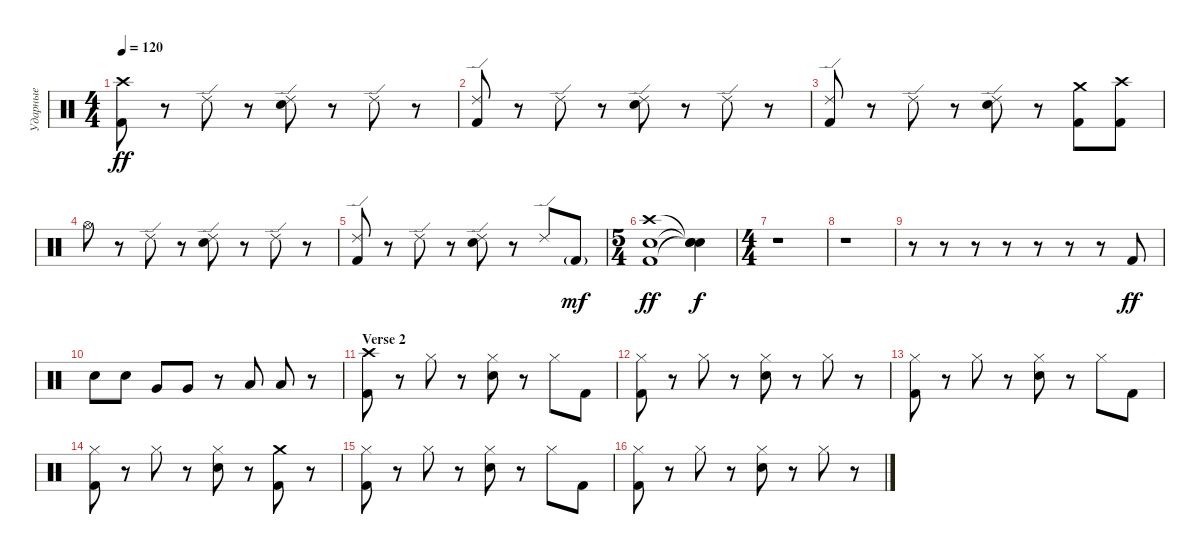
\track ("Ударные" "Ударные") {instrument percussion}
\staff {score}
\articulation defaults
\ts (4 4)
\tempo 120
\clef neutral
\ks c
("Crash high (hit)" "Kick (hit) 2").8{dy ff} r.8 "Ride (edge) 2".8 r.8 ("Ride (edge) 2" "Snare (hit) 2").8 r.8 "Ride (edge) 2".8 r.8 |
("Ride (edge) 2" "Kick (hit) 2").8 r.8 "Ride (edge) 2".8 r.8 ("Ride (edge) 2" "Snare (hit) 2").8 r.8 "Ride (edge) 2".8 r.8 |
("Ride (edge) 2" "Kick (hit) 2").8 r.8 "Ride (edge) 2".8 r.8 ("Ride (edge) 2" "Snare (hit) 2").8 r.8 ("Crash medium (hit)" "Kick (hit) 2").8 ("Crash high (hit)" "Kick (hit) 2").8 |
"Hi-Hat (open)".8 r.8 "Ride (edge) 2".8 r.8 ("Ride (edge) 2" "Snare (hit) 2").8 r.8 "Ride (edge) 2".8 r.8 |
("Ride (edge) 2" "Kick (hit) 2").8 r.8 "Ride (edge) 2".8 r.8 ("Ride (edge) 2" "Snare (hit) 2").8 r.8 "Ride (edge) 2".8 "Kick (hit) 2"{g}.8{dy mf} |
\ts (5 4)
("Crash high (hit)" "Snare (hit) 2" "Kick (hit) 2").1{dy ff} ("Snare (hit)"{t} "Snare (hit)"{t} "Snare (hit)"{t}).4{dy f} |
\ts (4 4)
r.1 |
r.1 |
r.8 r.8 r.8 r.8 r.8 r.8 r.8 "Kick (hit) 2".8{dy ff} |
"Snare (hit) 2".8 "Snare (hit) 2".8 "Very Low Tom (hit)".8 "Very Low Tom (hit)".8 r.8 "Low Floor Tom (hit)".8 "Low Floor Tom (hit)".8 r.8 |
\section ("" "Verse 2")
("Crash high (hit)" "Kick (hit) 2").8 r.8 "Hi-Hat (closed)".8 r.8 ("Hi-Hat (closed)" "Snare (hit) 2").8 r.8 "Hi-Hat (closed)".8 "Kick (hit) 2".8 |
("Hi-Hat (closed)" "Kick (hit) 2").8 r.8 "Hi-Hat (closed)".8 r.8 ("Hi-Hat (closed)" "Snare (hit) 2").8 r.8 "Hi-Hat (closed)".8 r.8 |
("Hi-Hat (closed)" "Kick (hit) 2").8 r.8 "Hi-Hat (closed)".8 r.8 ("Hi-Hat (closed)" "Snare (hit) 2").8 r.8 "Hi-Hat (closed)".8 "Kick (hit) 2".8 |
("Hi-Hat (closed)" "Kick (hit) 2").8 r.8 "Hi-Hat (closed)".8 r.8 ("Hi-Hat (closed)" "Snare (hit) 2").8 r.8 ("Crash medium (hit)" "Kick (hit) 2").8 r.8 |
("Hi-Hat (closed)" "Kick (hit) 2").8 r.8 "Hi-Hat (closed)".8 r.8 ("Hi-Hat (closed)" "Snare (hit) 2").8 r.8 "Hi-Hat (closed)".8 "Kick (hit) 2".8 |
("Hi-Hat (closed)" "Kick (hit) 2").8 r.8 "Hi-Hat (closed)".8 r.8 ("Hi-Hat (closed)" "Snare (hit) 2").8 r.8 "Hi-Hat (closed)".8 r.8
